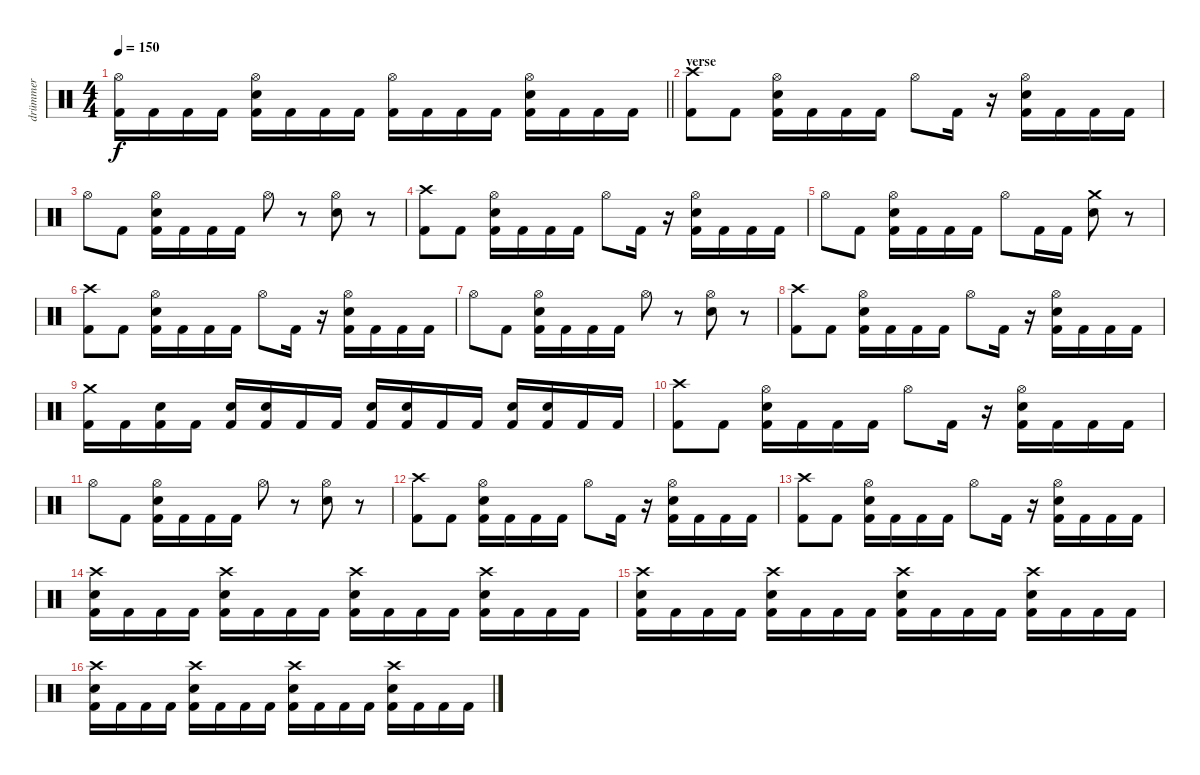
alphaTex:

\track ("drümmer" "drümmer") {instrument percussion}
\staff {score}
\articulation defaults
\ts (4 4)
\tempo 150
\clef neutral
\barLineRight lightlight
\ks c
("Hi-Hat (open)" "Kick (hit) 2").16{dy f} "Kick (hit) 2".16 "Kick (hit) 2".16 "Kick (hit) 2".16 ("Hi-Hat (open)" "Snare (hit) 2" "Kick (hit) 2").16 "Kick (hit) 2".16 "Kick (hit) 2".16 "Kick (hit) 2".16 ("Hi-Hat (open)" "Kick (hit) 2").16 "Kick (hit) 2".16 "Kick (hit) 2".16 "Kick (hit) 2".16 ("Hi-Hat (open)" "Snare (hit) 2" "Kick (hit) 2").16 "Kick (hit) 2".16 "Kick (hit) 2".16 "Kick (hit) 2".16 |
\section ("" "verse")
("Crash high (hit)" "Kick (hit) 2").8 "Kick (hit) 2".8 ("Hi-Hat (open)" "Snare (hit) 2" "Kick (hit) 2").16 "Kick (hit) 2".16 "Kick (hit) 2".16 "Kick (hit) 2".16 "Hi-Hat (open)".8 "Kick (hit) 2".16 r.16 ("Hi-Hat (open)" "Snare (hit) 2" "Kick (hit) 2").16 "Kick (hit) 2".16 "Kick (hit) 2".16 "Kick (hit) 2".16 |
"Hi-Hat (open)".8 "Kick (hit) 2".8 ("Hi-Hat (open)" "Snare (hit) 2" "Kick (hit) 2").16 "Kick (hit) 2".16 "Kick (hit) 2".16 "Kick (hit) 2".16 "Hi-Hat (open)".8 r.8 ("Hi-Hat (open)" "Snare (hit) 2").8 r.8 |
("Crash high (hit)" "Kick (hit) 2").8 "Kick (hit) 2".8 ("Hi-Hat (open)" "Snare (hit) 2" "Kick (hit) 2").16 "Kick (hit) 2".16 "Kick (hit) 2".16 "Kick (hit) 2".16 "Hi-Hat (open)".8 "Kick (hit) 2".16 r.16 ("Hi-Hat (open)" "Snare (hit) 2" "Kick (hit) 2").16 "Kick (hit) 2".16 "Kick (hit) 2".16 "Kick (hit) 2".16 |
"Hi-Hat (open)".8 "Kick (hit) 2".8 ("Hi-Hat (open)" "Snare (hit) 2" "Kick (hit) 2").16 "Kick (hit) 2".16 "Kick (hit) 2".16 "Kick (hit) 2".16 "Hi-Hat (open)".8 "Kick (hit) 2".16 "Kick (hit) 2".16 ("Crash medium (hit)" "Snare (hit) 2").8 r.8 |
("Crash high (hit)" "Kick (hit) 2").8 "Kick (hit) 2".8 ("Hi-Hat (open)" "Snare (hit) 2" "Kick (hit) 2").16 "Kick (hit) 2".16 "Kick (hit) 2".16 "Kick (hit) 2".16 "Hi-Hat (open)".8 "Kick (hit) 2".16 r.16 ("Hi-Hat (open)" "Snare (hit) 2" "Kick (hit) 2").16 "Kick (hit) 2".16 "Kick (hit) 2".16 "Kick (hit) 2".16 |
"Hi-Hat (open)".8 "Kick (hit) 2".8 ("Hi-Hat (open)" "Snare (hit) 2" "Kick (hit) 2").16 "Kick (hit) 2".16 "Kick (hit) 2".16 "Kick (hit) 2".16 "Hi-Hat (open)".8 r.8 ("Hi-Hat (open)" "Snare (hit) 2").8 r.8 |
("Crash high (hit)" "Kick (hit) 2").8 "Kick (hit) 2".8 ("Hi-Hat (open)" "Snare (hit) 2" "Kick (hit) 2").16 "Kick (hit) 2".16 "Kick (hit) 2".16 "Kick (hit) 2".16 "Hi-Hat (open)".8 "Kick (hit) 2".16 r.16 ("Hi-Hat (open)" "Snare (hit) 2" "Kick (hit) 2").16 "Kick (hit) 2".16 "Kick (hit) 2".16 "Kick (hit) 2".16 |
("Crash medium (hit)" "Kick (hit) 2").16 "Kick (hit) 2".16 ("Snare (hit) 2" "Kick (hit) 2").16 "Kick (hit) 2".16 ("Snare (hit) 2" "Kick (hit) 2").16 ("Snare (hit) 2" "Kick (hit) 2").16 "Kick (hit) 2".16 "Kick (hit) 2".16 ("Snare (hit) 2" "Kick (hit) 2").16 ("Snare (hit) 2" "Kick (hit) 2").16 "Kick (hit) 2".16 "Kick (hit) 2".16 ("Snare (hit) 2" "Kick (hit) 2").16 ("Snare (hit) 2" "Kick (hit) 2").16 "Kick (hit) 2".16 "Kick (hit) 2".16 |
("Crash high (hit)" "Kick (hit) 2").8 "Kick (hit) 2".8 ("Hi-Hat (open)" "Snare (hit) 2" "Kick (hit) 2").16 "Kick (hit) 2".16 "Kick (hit) 2".16 "Kick (hit) 2".16 "Hi-Hat (open)".8 "Kick (hit) 2".16 r.16 ("Hi-Hat (open)" "Snare (hit) 2" "Kick (hit) 2").16 "Kick (hit) 2".16 "Kick (hit) 2".16 "Kick (hit) 2".16 |
"Hi-Hat (open)".8 "Kick (hit) 2".8 ("Hi-Hat (open)" "Snare (hit) 2" "Kick (hit) 2").16 "Kick (hit) 2".16 "Kick (hit) 2".16 "Kick (hit) 2".16 "Hi-Hat (open)".8 r.8 ("Hi-Hat (open)" "Snare (hit) 2").8 r.8 |
("Crash high (hit)" "Kick (hit) 2").8 "Kick (hit) 2".8 ("Hi-Hat (open)" "Snare (hit) 2" "Kick (hit) 2").16 "Kick (hit) 2".16 "Kick (hit) 2".16 "Kick (hit) 2".16 "Hi-Hat (open)".8 "Kick (hit) 2".16 r.16 ("Hi-Hat (open)" "Snare (hit) 2" "Kick (hit) 2").16 "Kick (hit) 2".16 "Kick (hit) 2".16 "Kick (hit) 2".16 |
("Crash high (hit)" "Kick (hit) 2").8 "Kick (hit) 2".8 ("Hi-Hat (open)" "Snare (hit) 2" "Kick (hit) 2").16 "Kick (hit) 2".16 "Kick (hit) 2".16 "Kick (hit) 2".16 "Hi-Hat (open)".8 "Kick (hit) 2".16 r.16 ("Hi-Hat (open)" "Snare (hit) 2" "Kick (hit) 2").16 "Kick (hit) 2".16 "Kick (hit) 2".16 "Kick (hit) 2".16 |
("Crash high (hit)" "Snare (hit) 2" "Kick (hit) 2").16 "Kick (hit) 2".16 "Kick (hit) 2".16 "Kick (hit) 2".16 ("Crash high (hit)" "Snare (hit) 2" "Kick (hit) 2").16 "Kick (hit) 2".16 "Kick (hit) 2".16 "Kick (hit) 2".16 ("Crash high (hit)" "Snare (hit) 2" "Kick (hit) 2").16 "Kick (hit) 2".16 "Kick (hit) 2".16 "Kick (hit) 2".16 ("Crash high (hit)" "Snare (hit) 2" "Kick (hit) 2").16 "Kick (hit) 2".16 "Kick (hit) 2".16 "Kick (hit) 2".16 |
("Crash high (hit)" "Snare (hit) 2" "Kick (hit) 2").16 "Kick (hit) 2".16 "Kick (hit) 2".16 "Kick (hit) 2".16 ("Crash high (hit)" "Snare (hit) 2" "Kick (hit) 2").16 "Kick (hit) 2".16 "Kick (hit) 2".16 "Kick (hit) 2".16 ("Crash high (hit)" "Snare (hit) 2" "Kick (hit) 2").16 "Kick (hit) 2".16 "Kick (hit) 2".16 "Kick (hit) 2".16 ("Crash high (hit)" "Snare (hit) 2" "Kick (hit) 2").16 "Kick (hit) 2".16 "Kick (hit) 2".16 "Kick (hit) 2".16 |
("Crash high (hit)" "Snare (hit) 2" "Kick (hit) 2").16 "Kick (hit) 2".16 "Kick (hit) 2".16 "Kick (hit) 2".16 ("Crash high (hit)" "Snare (hit) 2" "Kick (hit) 2").16 "Kick (hit) 2".16 "Kick (hit) 2".16 "Kick (hit) 2".16 ("Crash high (hit)" "Snare (hit) 2" "Kick (hit) 2").16 "Kick (hit) 2".16 "Kick (hit) 2".16 "Kick (hit) 2".16 ("Crash high (hit)" "Snare (hit) 2" "Kick (hit) 2").16 "Kick (hit) 2".16 "Kick (hit) 2".16 "Kick (hit) 2".16
